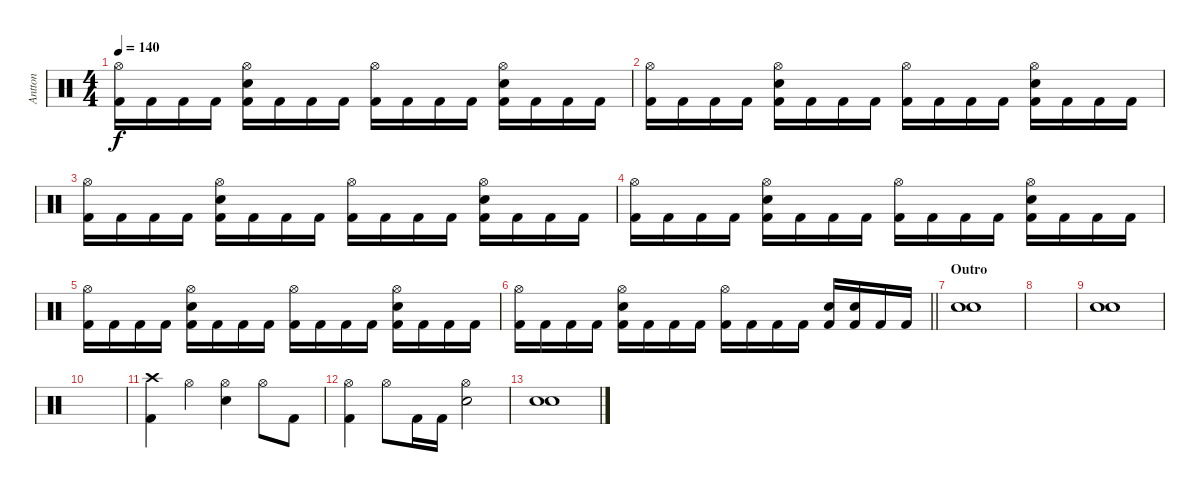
\track ("Antton" "Antton") {instrument percussion}
\staff {score}
\articulation defaults
\ts (4 4)
\tempo 140
\clef neutral
\ks c
("Hi-Hat (open)" "Kick (hit) 2").16{dy f} "Kick (hit) 2".16 "Kick (hit) 2".16 "Kick (hit) 2".16 ("Hi-Hat (open)" "Snare (hit) 2" "Kick (hit) 2").16 "Kick (hit) 2".16 "Kick (hit) 2".16 "Kick (hit) 2".16 ("Hi-Hat (open)" "Kick (hit) 2").16 "Kick (hit) 2".16 "Kick (hit) 2".16 "Kick (hit) 2".16 ("Hi-Hat (open)" "Snare (hit) 2" "Kick (hit) 2").16 "Kick (hit) 2".16 "Kick (hit) 2".16 "Kick (hit) 2".16 |
("Hi-Hat (open)" "Kick (hit) 2").16 "Kick (hit) 2".16 "Kick (hit) 2".16 "Kick (hit) 2".16 ("Hi-Hat (open)" "Snare (hit) 2" "Kick (hit) 2").16 "Kick (hit) 2".16 "Kick (hit) 2".16 "Kick (hit) 2".16 ("Hi-Hat (open)" "Kick (hit) 2").16 "Kick (hit) 2".16 "Kick (hit) 2".16 "Kick (hit) 2".16 ("Hi-Hat (open)" "Snare (hit) 2" "Kick (hit) 2").16 "Kick (hit) 2".16 "Kick (hit) 2".16 "Kick (hit) 2".16 |
("Hi-Hat (open)" "Kick (hit) 2").16 "Kick (hit) 2".16 "Kick (hit) 2".16 "Kick (hit) 2".16 ("Hi-Hat (open)" "Snare (hit) 2" "Kick (hit) 2").16 "Kick (hit) 2".16 "Kick (hit) 2".16 "Kick (hit) 2".16 ("Hi-Hat (open)" "Kick (hit) 2").16 "Kick (hit) 2".16 "Kick (hit) 2".16 "Kick (hit) 2".16 ("Hi-Hat (open)" "Snare (hit) 2" "Kick (hit) 2").16 "Kick (hit) 2".16 "Kick (hit) 2".16 "Kick (hit) 2".16 |
("Hi-Hat (open)" "Kick (hit) 2").16 "Kick (hit) 2".16 "Kick (hit) 2".16 "Kick (hit) 2".16 ("Hi-Hat (open)" "Snare (hit) 2" "Kick (hit) 2").16 "Kick (hit) 2".16 "Kick (hit) 2".16 "Kick (hit) 2".16 ("Hi-Hat (open)" "Kick (hit) 2").16 "Kick (hit) 2".16 "Kick (hit) 2".16 "Kick (hit) 2".16 ("Hi-Hat (open)" "Snare (hit) 2" "Kick (hit) 2").16 "Kick (hit) 2".16 "Kick (hit) 2".16 "Kick (hit) 2".16 |
("Hi-Hat (open)" "Kick (hit) 2").16 "Kick (hit) 2".16 "Kick (hit) 2".16 "Kick (hit) 2".16 ("Hi-Hat (open)" "Snare (hit) 2" "Kick (hit) 2").16 "Kick (hit) 2".16 "Kick (hit) 2".16 "Kick (hit) 2".16 ("Hi-Hat (open)" "Kick (hit) 2").16 "Kick (hit) 2".16 "Kick (hit) 2".16 "Kick (hit) 2".16 ("Hi-Hat (open)" "Snare (hit) 2" "Kick (hit) 2").16 "Kick (hit) 2".16 "Kick (hit) 2".16 "Kick (hit) 2".16 |
\barLineRight lightlight
("Hi-Hat (open)" "Kick (hit) 2").16 "Kick (hit) 2".16 "Kick (hit) 2".16 "Kick (hit) 2".16 ("Hi-Hat (open)" "Snare (hit) 2" "Kick (hit) 2").16 "Kick (hit) 2".16 "Kick (hit) 2".16 "Kick (hit) 2".16 ("Hi-Hat (open)" "Kick (hit) 2").16 "Kick (hit) 2".16 "Kick (hit) 2".16 "Kick (hit) 2".16 ("Snare (hit) 2" "Kick (hit) 2").16 ("Snare (hit) 2" "Kick (hit) 2").16 "Kick (hit) 2".16 "Kick (hit) 2".16 |
\section ("" "Outro")
("Snare (hit) 2" "Snare (hit) 2").1 |
|
("Snare (hit) 2" "Snare (hit) 2").1 |
|
("Crash high (hit)" "Kick (hit) 2").4 "Hi-Hat (open)".4 ("Hi-Hat (open)" "Snare (hit) 2").4 "Hi-Hat (open)".8 "Kick (hit) 2".8 |
("Hi-Hat (open)" "Kick (hit) 2").4 "Hi-Hat (open)".8 "Kick (hit) 2".16 "Kick (hit) 2".16 ("Hi-Hat (open)" "Snare (hit) 2").2 |
("Snare (hit) 2" "Snare (hit) 2").1
